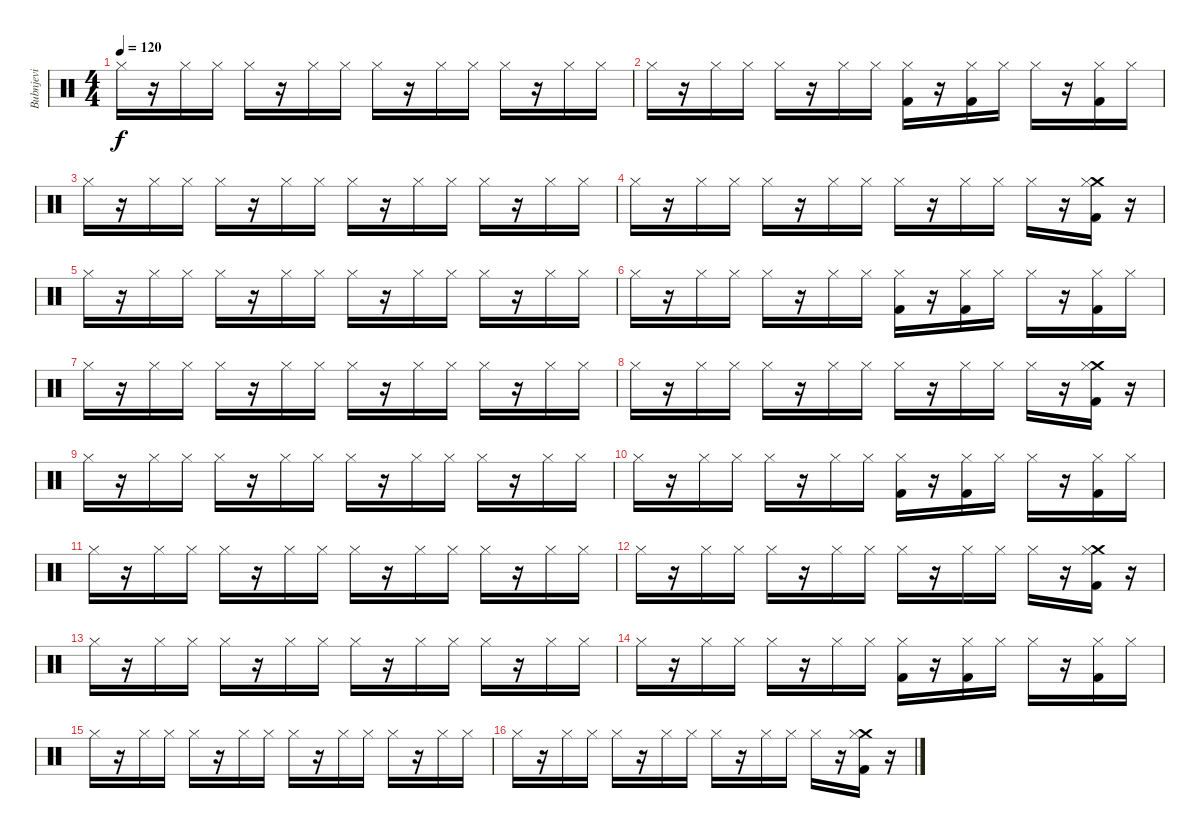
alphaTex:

\track ("Bubnjevi" "Bubnjevi") {instrument percussion}
\staff {score}
\articulation defaults
\ts (4 4)
\tempo 120
\clef neutral
\ks c "Hi-Hat (closed)".16{dy f}
r.16 "Hi-Hat (closed)".16 "Hi-Hat (closed)".16 "Hi-Hat (closed)".16 r.16 "Hi-Hat (closed)".16 "Hi-Hat (closed)".16 "Hi-Hat (closed)".16 r.16 "Hi-Hat (closed)".16 "Hi-Hat (closed)".16 "Hi-Hat (closed)".16 r.16 "Hi-Hat (closed)".16 "Hi-Hat (closed)".16 |
"Hi-Hat (closed)".16 r.16 "Hi-Hat (closed)".16 "Hi-Hat (closed)".16 "Hi-Hat (closed)".16 r.16 "Hi-Hat (closed)".16 "Hi-Hat (closed)".16 ("Hi-Hat (closed)" "Kick (hit) 2").16 r.16 ("Hi-Hat (closed)" "Kick (hit) 2").16 "Hi-Hat (closed)".16 "Hi-Hat (closed)".16 r.16 ("Hi-Hat (closed)" "Kick (hit) 2").16 "Hi-Hat (closed)".16 |
"Hi-Hat (closed)".16 r.16 "Hi-Hat (closed)".16 "Hi-Hat (closed)".16 "Hi-Hat (closed)".16 r.16 "Hi-Hat (closed)".16 "Hi-Hat (closed)".16 "Hi-Hat (closed)".16 r.16 "Hi-Hat (closed)".16 "Hi-Hat (closed)".16 "Hi-Hat (closed)".16 r.16 "Hi-Hat (closed)".16 "Hi-Hat (closed)".16 |
"Hi-Hat (closed)".16 r.16 "Hi-Hat (closed)".16 "Hi-Hat (closed)".16 "Hi-Hat (closed)".16 r.16 "Hi-Hat (closed)".16 "Hi-Hat (closed)".16 "Hi-Hat (closed)".16 r.16 "Hi-Hat (closed)".16 "Hi-Hat (closed)".16 "Hi-Hat (closed)".16 r.16 ("Crash medium (hit)" "Hi-Hat (closed)" "Kick (hit) 2").16 r.16 |
"Hi-Hat (closed)".16 r.16 "Hi-Hat (closed)".16 "Hi-Hat (closed)".16 "Hi-Hat (closed)".16 r.16 "Hi-Hat (closed)".16 "Hi-Hat (closed)".16 "Hi-Hat (closed)".16 r.16 "Hi-Hat (closed)".16 "Hi-Hat (closed)".16 "Hi-Hat (closed)".16 r.16 "Hi-Hat (closed)".16 "Hi-Hat (closed)".16 |
"Hi-Hat (closed)".16 r.16 "Hi-Hat (closed)".16 "Hi-Hat (closed)".16 "Hi-Hat (closed)".16 r.16 "Hi-Hat (closed)".16 "Hi-Hat (closed)".16 ("Hi-Hat (closed)" "Kick (hit) 2").16 r.16 ("Hi-Hat (closed)" "Kick (hit) 2").16 "Hi-Hat (closed)".16 "Hi-Hat (closed)".16 r.16 ("Hi-Hat (closed)" "Kick (hit) 2").16 "Hi-Hat (closed)".16 |
"Hi-Hat (closed)".16 r.16 "Hi-Hat (closed)".16 "Hi-Hat (closed)".16 "Hi-Hat (closed)".16 r.16 "Hi-Hat (closed)".16 "Hi-Hat (closed)".16 "Hi-Hat (closed)".16 r.16 "Hi-Hat (closed)".16 "Hi-Hat (closed)".16 "Hi-Hat (closed)".16 r.16 "Hi-Hat (closed)".16 "Hi-Hat (closed)".16 |
"Hi-Hat (closed)".16 r.16 "Hi-Hat (closed)".16 "Hi-Hat (closed)".16 "Hi-Hat (closed)".16 r.16 "Hi-Hat (closed)".16 "Hi-Hat (closed)".16 "Hi-Hat (closed)".16 r.16 "Hi-Hat (closed)".16 "Hi-Hat (closed)".16 "Hi-Hat (closed)".16 r.16 ("Crash medium (hit)" "Hi-Hat (closed)" "Kick (hit) 2").16 r.16 |
"Hi-Hat (closed)".16 r.16 "Hi-Hat (closed)".16 "Hi-Hat (closed)".16 "Hi-Hat (closed)".16 r.16 "Hi-Hat (closed)".16 "Hi-Hat (closed)".16 "Hi-Hat (closed)".16 r.16 "Hi-Hat (closed)".16 "Hi-Hat (closed)".16 "Hi-Hat (closed)".16 r.16 "Hi-Hat (closed)".16 "Hi-Hat (closed)".16 |
"Hi-Hat (closed)".16 r.16 "Hi-Hat (closed)".16 "Hi-Hat (closed)".16 "Hi-Hat (closed)".16 r.16 "Hi-Hat (closed)".16 "Hi-Hat (closed)".16 ("Hi-Hat (closed)" "Kick (hit) 2").16 r.16 ("Hi-Hat (closed)" "Kick (hit) 2").16 "Hi-Hat (closed)".16 "Hi-Hat (closed)".16 r.16 ("Hi-Hat (closed)" "Kick (hit) 2").16 "Hi-Hat (closed)".16 |
"Hi-Hat (closed)".16 r.16 "Hi-Hat (closed)".16 "Hi-Hat (closed)".16 "Hi-Hat (closed)".16 r.16 "Hi-Hat (closed)".16 "Hi-Hat (closed)".16 "Hi-Hat (closed)".16 r.16 "Hi-Hat (closed)".16 "Hi-Hat (closed)".16 "Hi-Hat (closed)".16 r.16 "Hi-Hat (closed)".16 "Hi-Hat (closed)".16 |
"Hi-Hat (closed)".16 r.16 "Hi-Hat (closed)".16 "Hi-Hat (closed)".16 "Hi-Hat (closed)".16 r.16 "Hi-Hat (closed)".16 "Hi-Hat (closed)".16 "Hi-Hat (closed)".16 r.16 "Hi-Hat (closed)".16 "Hi-Hat (closed)".16 "Hi-Hat (closed)".16 r.16 ("Crash medium (hit)" "Hi-Hat (closed)" "Kick (hit) 2").16 r.16 |
"Hi-Hat (closed)".16 r.16 "Hi-Hat (closed)".16 "Hi-Hat (closed)".16 "Hi-Hat (closed)".16 r.16 "Hi-Hat (closed)".16 "Hi-Hat (closed)".16 "Hi-Hat (closed)".16 r.16 "Hi-Hat (closed)".16 "Hi-Hat (closed)".16 "Hi-Hat (closed)".16 r.16 "Hi-Hat (closed)".16 "Hi-Hat (closed)".16 |
"Hi-Hat (closed)".16 r.16 "Hi-Hat (closed)".16 "Hi-Hat (closed)".16 "Hi-Hat (closed)".16 r.16 "Hi-Hat (closed)".16 "Hi-Hat (closed)".16 ("Hi-Hat (closed)" "Kick (hit) 2").16 r.16 ("Hi-Hat (closed)" "Kick (hit) 2").16 "Hi-Hat (closed)".16 "Hi-Hat (closed)".16 r.16 ("Hi-Hat (closed)" "Kick (hit) 2").16 "Hi-Hat (closed)".16 |
"Hi-Hat (closed)".16 r.16 "Hi-Hat (closed)".16 "Hi-Hat (closed)".16 "Hi-Hat (closed)".16 r.16 "Hi-Hat (closed)".16 "Hi-Hat (closed)".16 "Hi-Hat (closed)".16 r.16 "Hi-Hat (closed)".16 "Hi-Hat (closed)".16 "Hi-Hat (closed)".16 r.16 "Hi-Hat (closed)".16 "Hi-Hat (closed)".16 |
"Hi-Hat (closed)".16 r.16 "Hi-Hat (closed)".16 "Hi-Hat (closed)".16 "Hi-Hat (closed)".16 r.16 "Hi-Hat (closed)".16 "Hi-Hat (closed)".16 "Hi-Hat (closed)".16 r.16 "Hi-Hat (closed)".16 "Hi-Hat (closed)".16 "Hi-Hat (closed)".16 r.16 ("Crash medium (hit)" "Hi-Hat (closed)" "Kick (hit) 2").16 r.16
